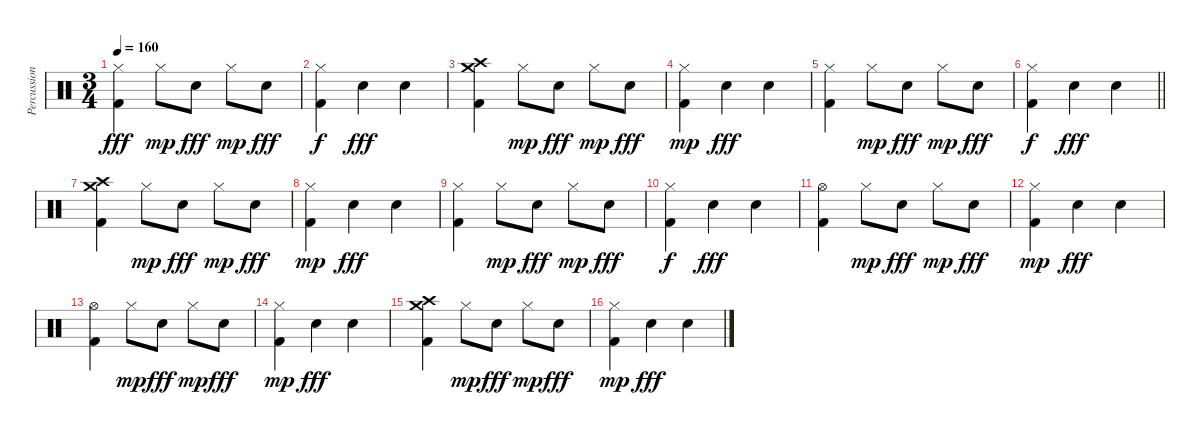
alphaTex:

\track ("Percussion" "Percussion") {solo instrument percussion}
\staff {score}
\articulation defaults
\ts (3 4)
\tempo 160
\clef neutral
\ks c
("Hi-Hat (closed)" "Kick (hit) 2").4{dy fff} "Hi-Hat (closed)".8{dy mp} "Electric Snare (hit)".8{dy fff} "Hi-Hat (closed)".8{dy mp} "Electric Snare (hit)".8{dy fff} |
("Hi-Hat (closed)" "Kick (hit) 2").4{dy f} "Electric Snare (hit)".4{dy fff} "Electric Snare (hit)".4 |
("Crash medium (hit)" "Crash high (hit)" "Kick (hit) 2").4 "Hi-Hat (closed)".8{dy mp} "Electric Snare (hit)".8{dy fff} "Hi-Hat (closed)".8{dy mp} "Electric Snare (hit)".8{dy fff} |
("Hi-Hat (closed)" "Kick (hit) 2").4{dy mp} "Electric Snare (hit)".4{dy fff} "Electric Snare (hit)".4 |
("Hi-Hat (closed)" "Kick (hit) 2").4 "Hi-Hat (closed)".8{dy mp} "Electric Snare (hit)".8{dy fff} "Hi-Hat (closed)".8{dy mp} "Electric Snare (hit)".8{dy fff} |
\barLineRight lightlight
("Hi-Hat (closed)" "Kick (hit) 2").4{dy f} "Electric Snare (hit)".4{dy fff} "Electric Snare (hit)".4 |
("Crash medium (hit)" "Crash high (hit)" "Kick (hit) 2").4 "Hi-Hat (closed)".8{dy mp} "Electric Snare (hit)".8{dy fff} "Hi-Hat (closed)".8{dy mp} "Electric Snare (hit)".8{dy fff} |
("Hi-Hat (closed)" "Kick (hit) 2").4{dy mp} "Electric Snare (hit)".4{dy fff} "Electric Snare (hit)".4 |
("Hi-Hat (closed)" "Kick (hit) 2").4 "Hi-Hat (closed)".8{dy mp} "Electric Snare (hit)".8{dy fff} "Hi-Hat (closed)".8{dy mp} "Electric Snare (hit)".8{dy fff} |
("Hi-Hat (closed)" "Kick (hit) 2").4{dy f} "Electric Snare (hit)".4{dy fff} "Electric Snare (hit)".4 |
("Hi-Hat (open)" "Kick (hit) 2").4 "Hi-Hat (closed)".8{dy mp} "Electric Snare (hit)".8{dy fff} "Hi-Hat (closed)".8{dy mp} "Electric Snare (hit)".8{dy fff} |
("Hi-Hat (closed)" "Kick (hit) 2").4{dy mp} "Electric Snare (hit)".4{dy fff} "Electric Snare (hit)".4 |
("Hi-Hat (open)" "Kick (hit) 2").4 "Hi-Hat (closed)".8{dy mp} "Electric Snare (hit)".8{dy fff} "Hi-Hat (closed)".8{dy mp} "Electric Snare (hit)".8{dy fff} |
("Hi-Hat (closed)" "Kick (hit) 2").4{dy mp} "Electric Snare (hit)".4{dy fff} "Electric Snare (hit)".4 |
("Crash medium (hit)" "Crash high (hit)" "Kick (hit) 2").4 "Hi-Hat (closed)".8{dy mp} "Electric Snare (hit)".8{dy fff} "Hi-Hat (closed)".8{dy mp} "Electric Snare (hit)".8{dy fff} |
("Hi-Hat (closed)" "Kick (hit) 2").4{dy mp} "Electric Snare (hit)".4{dy fff} "Electric Snare (hit)".4
